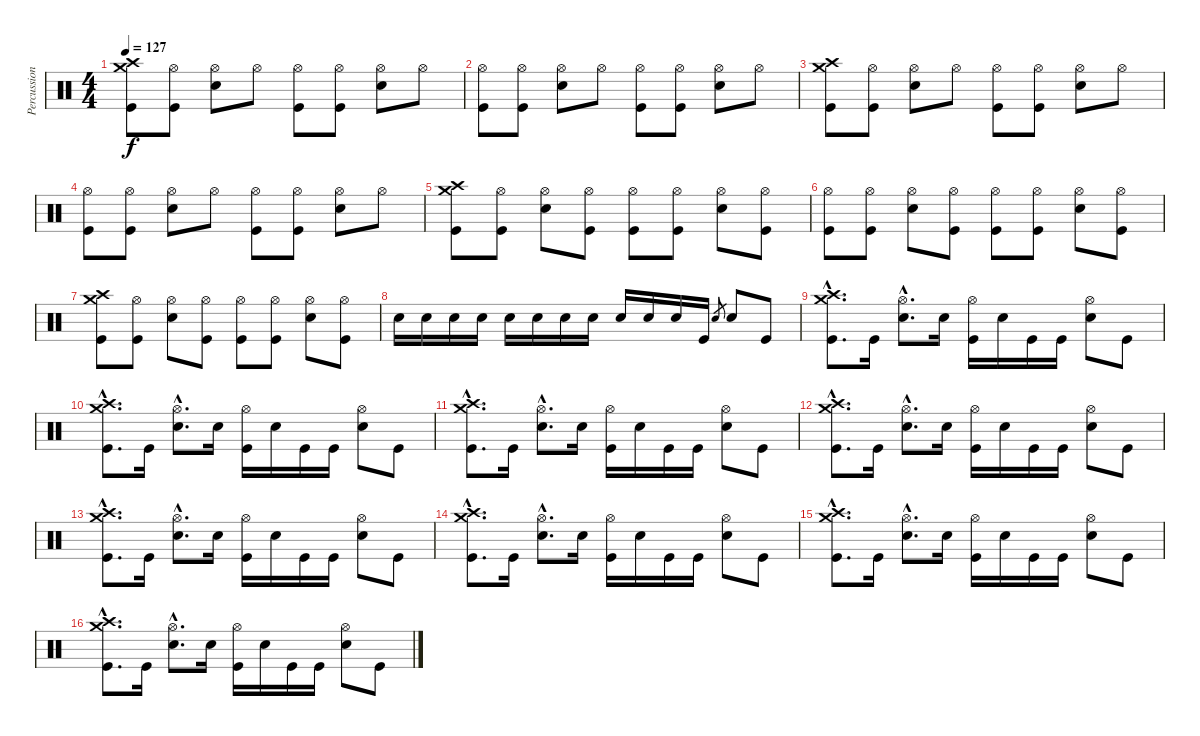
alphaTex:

\track ("Percussions" "Percussion") {instrument percussion}
\staff {score}
\articulation defaults
\ts (4 4)
\tempo 127
\clef neutral
\ks c
("Crash high (hit)" "Crash medium (hit)" "Kick (hit)").8{dy f} ("Hi-Hat (open)" "Kick (hit)").8 ("Hi-Hat (open)" "Snare (hit) 2").8 "Hi-Hat (open)".8 ("Hi-Hat (open)" "Kick (hit)").8 ("Hi-Hat (open)" "Kick (hit)").8 ("Hi-Hat (open)" "Snare (hit) 2").8 "Hi-Hat (open)".8 |
("Hi-Hat (open)" "Kick (hit)").8 ("Hi-Hat (open)" "Kick (hit)").8 ("Hi-Hat (open)" "Snare (hit) 2").8 "Hi-Hat (open)".8 ("Hi-Hat (open)" "Kick (hit)").8 ("Hi-Hat (open)" "Kick (hit)").8 ("Hi-Hat (open)" "Snare (hit) 2").8 "Hi-Hat (open)".8 |
("Crash high (hit)" "Crash medium (hit)" "Kick (hit)").8 ("Hi-Hat (open)" "Kick (hit)").8 ("Hi-Hat (open)" "Snare (hit) 2").8 "Hi-Hat (open)".8 ("Hi-Hat (open)" "Kick (hit)").8 ("Hi-Hat (open)" "Kick (hit)").8 ("Hi-Hat (open)" "Snare (hit) 2").8 "Hi-Hat (open)".8 |
("Hi-Hat (open)" "Kick (hit)").8 ("Hi-Hat (open)" "Kick (hit)").8 ("Hi-Hat (open)" "Snare (hit) 2").8 "Hi-Hat (open)".8 ("Hi-Hat (open)" "Kick (hit)").8 ("Hi-Hat (open)" "Kick (hit)").8 ("Hi-Hat (open)" "Snare (hit) 2").8 "Hi-Hat (open)".8 |
("Crash high (hit)" "Crash medium (hit)" "Kick (hit)").8 ("Hi-Hat (open)" "Kick (hit)").8 ("Hi-Hat (open)" "Snare (hit) 2").8 ("Hi-Hat (open)" "Kick (hit)").8 ("Hi-Hat (open)" "Kick (hit)").8 ("Hi-Hat (open)" "Kick (hit)").8 ("Hi-Hat (open)" "Snare (hit) 2").8 ("Hi-Hat (open)" "Kick (hit)").8 |
("Hi-Hat (open)" "Kick (hit)").8 ("Hi-Hat (open)" "Kick (hit)").8 ("Hi-Hat (open)" "Snare (hit) 2").8 ("Hi-Hat (open)" "Kick (hit)").8 ("Hi-Hat (open)" "Kick (hit)").8 ("Hi-Hat (open)" "Kick (hit)").8 ("Hi-Hat (open)" "Snare (hit) 2").8 ("Hi-Hat (open)" "Kick (hit)").8 |
("Crash high (hit)" "Crash medium (hit)" "Kick (hit)").8 ("Hi-Hat (open)" "Kick (hit)").8 ("Hi-Hat (open)" "Snare (hit) 2").8 ("Hi-Hat (open)" "Kick (hit)").8 ("Hi-Hat (open)" "Kick (hit)").8 ("Hi-Hat (open)" "Kick (hit)").8 ("Hi-Hat (open)" "Snare (hit) 2").8 ("Hi-Hat (open)" "Kick (hit)").8 |
"Snare (hit) 2".16 "Snare (hit) 2".16 "Snare (hit) 2".16 "Snare (hit) 2".16 "Snare (hit) 2".16 "Snare (hit) 2".16 "Snare (hit) 2".16 "Snare (hit) 2".16 "Snare (hit) 2".16 "Snare (hit) 2".16 "Snare (hit) 2".16 "Kick (hit)".16 "Snare (hit) 2".8{gr} "Snare (hit) 2".8 "Kick (hit)".8 |
("Crash high (hit)"{hac} "Crash medium (hit)"{hac} "Kick (hit)"{hac}).8{d} "Kick (hit)".16 ("Hi-Hat (open)"{hac} "Snare (hit) 2"{hac}).8{d} "Snare (hit) 2".16 ("Hi-Hat (open)" "Kick (hit)").16 "Snare (hit) 2".16 "Kick (hit)".16 "Kick (hit)".16 ("Hi-Hat (open)" "Snare (hit) 2").8 "Kick (hit)".8 |
("Crash high (hit)"{hac} "Crash medium (hit)"{hac} "Kick (hit)"{hac}).8{d} "Kick (hit)".16 ("Hi-Hat (open)"{hac} "Snare (hit) 2"{hac}).8{d} "Snare (hit) 2".16 ("Hi-Hat (open)" "Kick (hit)").16 "Snare (hit) 2".16 "Kick (hit)".16 "Kick (hit)".16 ("Hi-Hat (open)" "Snare (hit) 2").8 "Kick (hit)".8 |
("Crash high (hit)"{hac} "Crash medium (hit)"{hac} "Kick (hit)"{hac}).8{d} "Kick (hit)".16 ("Hi-Hat (open)"{hac} "Snare (hit) 2"{hac}).8{d} "Snare (hit) 2".16 ("Hi-Hat (open)" "Kick (hit)").16 "Snare (hit) 2".16 "Kick (hit)".16 "Kick (hit)".16 ("Hi-Hat (open)" "Snare (hit) 2").8 "Kick (hit)".8 |
("Crash high (hit)"{hac} "Crash medium (hit)"{hac} "Kick (hit)"{hac}).8{d} "Kick (hit)".16 ("Hi-Hat (open)"{hac} "Snare (hit) 2"{hac}).8{d} "Snare (hit) 2".16 ("Hi-Hat (open)" "Kick (hit)").16 "Snare (hit) 2".16 "Kick (hit)".16 "Kick (hit)".16 ("Hi-Hat (open)" "Snare (hit) 2").8 "Kick (hit)".8 |
("Crash high (hit)"{hac} "Crash medium (hit)"{hac} "Kick (hit)"{hac}).8{d} "Kick (hit)".16 ("Hi-Hat (open)"{hac} "Snare (hit) 2"{hac}).8{d} "Snare (hit) 2".16 ("Hi-Hat (open)" "Kick (hit)").16 "Snare (hit) 2".16 "Kick (hit)".16 "Kick (hit)".16 ("Hi-Hat (open)" "Snare (hit) 2").8 "Kick (hit)".8 |
("Crash high (hit)"{hac} "Crash medium (hit)"{hac} "Kick (hit)"{hac}).8{d} "Kick (hit)".16 ("Hi-Hat (open)"{hac} "Snare (hit) 2"{hac}).8{d} "Snare (hit) 2".16 ("Hi-Hat (open)" "Kick (hit)").16 "Snare (hit) 2".16 "Kick (hit)".16 "Kick (hit)".16 ("Hi-Hat (open)" "Snare (hit) 2").8 "Kick (hit)".8 |
("Crash high (hit)"{hac} "Crash medium (hit)"{hac} "Kick (hit)"{hac}).8{d} "Kick (hit)".16 ("Hi-Hat (open)"{hac} "Snare (hit) 2"{hac}).8{d} "Snare (hit) 2".16 ("Hi-Hat (open)" "Kick (hit)").16 "Snare (hit) 2".16 "Kick (hit)".16 "Kick (hit)".16 ("Hi-Hat (open)" "Snare (hit) 2").8 "Kick (hit)".8 |
("Crash high (hit)"{hac} "Crash medium (hit)"{hac} "Kick (hit)"{hac}).8{d} "Kick (hit)".16 ("Hi-Hat (open)"{hac} "Snare (hit) 2"{hac}).8{d} "Snare (hit) 2".16 ("Hi-Hat (open)" "Kick (hit)").16 "Snare (hit) 2".16 "Kick (hit)".16 "Kick (hit)".16 ("Hi-Hat (open)" "Snare (hit) 2").8 "Kick (hit)".8
